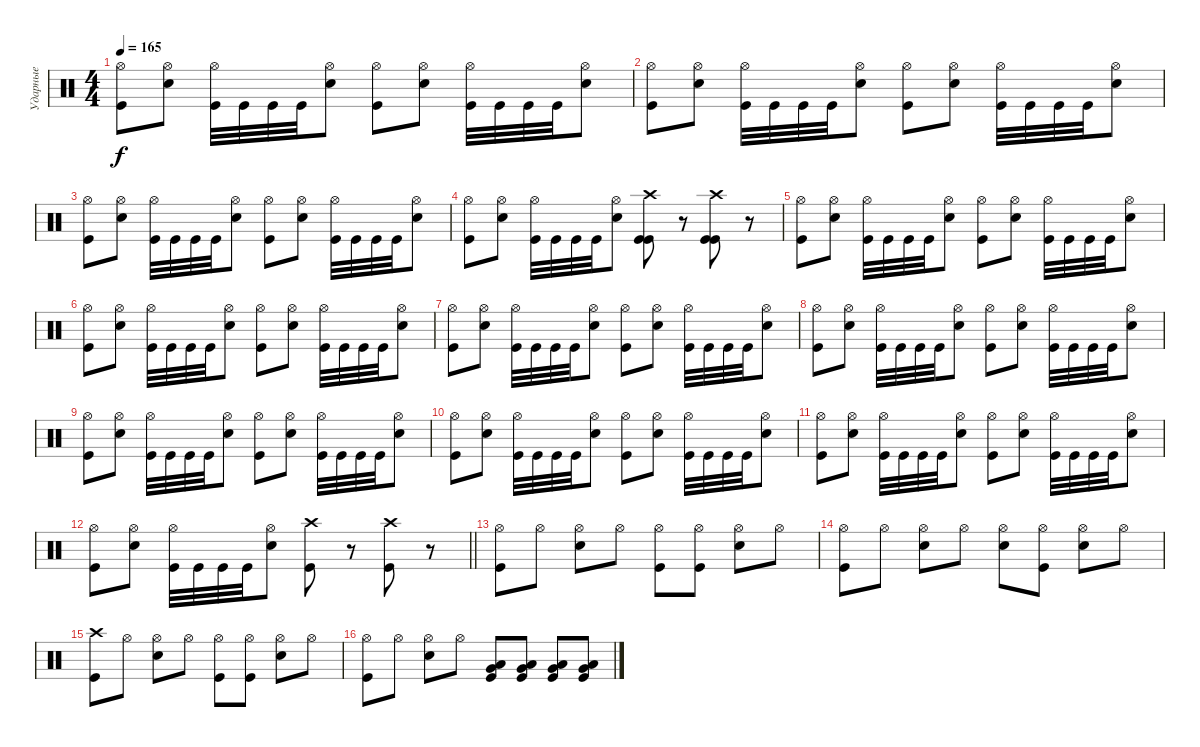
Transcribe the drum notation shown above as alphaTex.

\track ("Ударные" "Ударные") {instrument percussion}
\staff {score}
\articulation defaults
\ts (4 4)
\tempo 165
\clef neutral
\ks c
("Hi-Hat (open)" "Kick (hit)").8{dy f} ("Hi-Hat (open)" "Electric Snare (hit)").8 ("Hi-Hat (open)" "Kick (hit)").32 "Kick (hit)".32 "Kick (hit)".32 "Kick (hit)".32 ("Hi-Hat (open)" "Electric Snare (hit)").8 ("Hi-Hat (open)" "Kick (hit)").8 ("Hi-Hat (open)" "Electric Snare (hit)").8 ("Hi-Hat (open)" "Kick (hit)").32 "Kick (hit)".32 "Kick (hit)".32 "Kick (hit)".32 ("Hi-Hat (open)" "Electric Snare (hit)").8 |
("Hi-Hat (open)" "Kick (hit)").8 ("Hi-Hat (open)" "Electric Snare (hit)").8 ("Hi-Hat (open)" "Kick (hit)").32 "Kick (hit)".32 "Kick (hit)".32 "Kick (hit)".32 ("Hi-Hat (open)" "Electric Snare (hit)").8 ("Hi-Hat (open)" "Kick (hit)").8 ("Hi-Hat (open)" "Electric Snare (hit)").8 ("Hi-Hat (open)" "Kick (hit)").32 "Kick (hit)".32 "Kick (hit)".32 "Kick (hit)".32 ("Hi-Hat (open)" "Electric Snare (hit)").8 |
("Hi-Hat (open)" "Kick (hit)").8 ("Hi-Hat (open)" "Electric Snare (hit)").8 ("Hi-Hat (open)" "Kick (hit)").32 "Kick (hit)".32 "Kick (hit)".32 "Kick (hit)".32 ("Hi-Hat (open)" "Electric Snare (hit)").8 ("Hi-Hat (open)" "Kick (hit)").8 ("Hi-Hat (open)" "Electric Snare (hit)").8 ("Hi-Hat (open)" "Kick (hit)").32 "Kick (hit)".32 "Kick (hit)".32 "Kick (hit)".32 ("Hi-Hat (open)" "Electric Snare (hit)").8 |
("Hi-Hat (open)" "Kick (hit)").8 ("Hi-Hat (open)" "Electric Snare (hit)").8 ("Hi-Hat (open)" "Kick (hit)").32 "Kick (hit)".32 "Kick (hit)".32 "Kick (hit)".32 ("Hi-Hat (open)" "Electric Snare (hit)").8 ("Crash high (hit)" "Kick (hit)" "Kick (hit)").8 r.8 ("Crash high (hit)" "Kick (hit)" "Kick (hit)").8 r.8 |
("Hi-Hat (open)" "Kick (hit)").8 ("Hi-Hat (open)" "Electric Snare (hit)").8 ("Hi-Hat (open)" "Kick (hit)").32 "Kick (hit)".32 "Kick (hit)".32 "Kick (hit)".32 ("Hi-Hat (open)" "Electric Snare (hit)").8 ("Hi-Hat (open)" "Kick (hit)").8 ("Hi-Hat (open)" "Electric Snare (hit)").8 ("Hi-Hat (open)" "Kick (hit)").32 "Kick (hit)".32 "Kick (hit)".32 "Kick (hit)".32 ("Hi-Hat (open)" "Electric Snare (hit)").8 |
("Hi-Hat (open)" "Kick (hit)").8 ("Hi-Hat (open)" "Electric Snare (hit)").8 ("Hi-Hat (open)" "Kick (hit)").32 "Kick (hit)".32 "Kick (hit)".32 "Kick (hit)".32 ("Hi-Hat (open)" "Electric Snare (hit)").8 ("Hi-Hat (open)" "Kick (hit)").8 ("Hi-Hat (open)" "Electric Snare (hit)").8 ("Hi-Hat (open)" "Kick (hit)").32 "Kick (hit)".32 "Kick (hit)".32 "Kick (hit)".32 ("Hi-Hat (open)" "Electric Snare (hit)").8 |
("Hi-Hat (open)" "Kick (hit)").8 ("Hi-Hat (open)" "Electric Snare (hit)").8 ("Hi-Hat (open)" "Kick (hit)").32 "Kick (hit)".32 "Kick (hit)".32 "Kick (hit)".32 ("Hi-Hat (open)" "Electric Snare (hit)").8 ("Hi-Hat (open)" "Kick (hit)").8 ("Hi-Hat (open)" "Electric Snare (hit)").8 ("Hi-Hat (open)" "Kick (hit)").32 "Kick (hit)".32 "Kick (hit)".32 "Kick (hit)".32 ("Hi-Hat (open)" "Electric Snare (hit)").8 |
("Hi-Hat (open)" "Kick (hit)").8 ("Hi-Hat (open)" "Electric Snare (hit)").8 ("Hi-Hat (open)" "Kick (hit)").32 "Kick (hit)".32 "Kick (hit)".32 "Kick (hit)".32 ("Hi-Hat (open)" "Electric Snare (hit)").8 ("Hi-Hat (open)" "Kick (hit)").8 ("Hi-Hat (open)" "Electric Snare (hit)").8 ("Hi-Hat (open)" "Kick (hit)").32 "Kick (hit)".32 "Kick (hit)".32 "Kick (hit)".32 ("Hi-Hat (open)" "Electric Snare (hit)").8 |
("Hi-Hat (open)" "Kick (hit)").8 ("Hi-Hat (open)" "Electric Snare (hit)").8 ("Hi-Hat (open)" "Kick (hit)").32 "Kick (hit)".32 "Kick (hit)".32 "Kick (hit)".32 ("Hi-Hat (open)" "Electric Snare (hit)").8 ("Hi-Hat (open)" "Kick (hit)").8 ("Hi-Hat (open)" "Electric Snare (hit)").8 ("Hi-Hat (open)" "Kick (hit)").32 "Kick (hit)".32 "Kick (hit)".32 "Kick (hit)".32 ("Hi-Hat (open)" "Electric Snare (hit)").8 |
("Hi-Hat (open)" "Kick (hit)").8 ("Hi-Hat (open)" "Electric Snare (hit)").8 ("Hi-Hat (open)" "Kick (hit)").32 "Kick (hit)".32 "Kick (hit)".32 "Kick (hit)".32 ("Hi-Hat (open)" "Electric Snare (hit)").8 ("Hi-Hat (open)" "Kick (hit)").8 ("Hi-Hat (open)" "Electric Snare (hit)").8 ("Hi-Hat (open)" "Kick (hit)").32 "Kick (hit)".32 "Kick (hit)".32 "Kick (hit)".32 ("Hi-Hat (open)" "Electric Snare (hit)").8 |
("Hi-Hat (open)" "Kick (hit)").8 ("Hi-Hat (open)" "Electric Snare (hit)").8 ("Hi-Hat (open)" "Kick (hit)").32 "Kick (hit)".32 "Kick (hit)".32 "Kick (hit)".32 ("Hi-Hat (open)" "Electric Snare (hit)").8 ("Hi-Hat (open)" "Kick (hit)").8 ("Hi-Hat (open)" "Electric Snare (hit)").8 ("Hi-Hat (open)" "Kick (hit)").32 "Kick (hit)".32 "Kick (hit)".32 "Kick (hit)".32 ("Hi-Hat (open)" "Electric Snare (hit)").8 |
\barLineRight lightlight
("Hi-Hat (open)" "Kick (hit)").8 ("Hi-Hat (open)" "Electric Snare (hit)").8 ("Hi-Hat (open)" "Kick (hit)").32 "Kick (hit)".32 "Kick (hit)".32 "Kick (hit)".32 ("Hi-Hat (open)" "Electric Snare (hit)").8 ("Crash high (hit)" "Kick (hit)").8 r.8 ("Crash high (hit)" "Kick (hit)").8 r.8 |
\section ("" "")
("Hi-Hat (open)" "Kick (hit)").8 "Hi-Hat (open)".8 ("Hi-Hat (open)" "Electric Snare (hit)").8 "Hi-Hat (open)".8 ("Hi-Hat (open)" "Kick (hit)").8 ("Hi-Hat (open)" "Kick (hit)").8 ("Hi-Hat (open)" "Electric Snare (hit)").8 "Hi-Hat (open)".8 |
("Hi-Hat (open)" "Kick (hit)").8 "Hi-Hat (open)".8 ("Hi-Hat (open)" "Electric Snare (hit)").8 "Hi-Hat (open)".8 ("Hi-Hat (open)" "Electric Snare (hit)").8 ("Hi-Hat (open)" "Kick (hit)").8 ("Hi-Hat (open)" "Electric Snare (hit)").8 "Hi-Hat (open)".8 |
("Crash high (hit)" "Kick (hit)").8 "Hi-Hat (open)".8 ("Hi-Hat (open)" "Electric Snare (hit)").8 "Hi-Hat (open)".8 ("Hi-Hat (open)" "Kick (hit)").8 ("Hi-Hat (open)" "Kick (hit)").8 ("Hi-Hat (open)" "Electric Snare (hit)").8 "Hi-Hat (open)".8 |
("Hi-Hat (open)" "Kick (hit)").8 "Hi-Hat (open)".8 ("Hi-Hat (open)" "Electric Snare (hit)").8 "Hi-Hat (open)".8 ("Very Low Tom (hit)" "Low Tom (hit)" "Kick (hit)").8 ("Very Low Tom (hit)" "Low Tom (hit)" "Kick (hit)").8 ("Very Low Tom (hit)" "Low Tom (hit)" "Kick (hit)").8 ("Very Low Tom (hit)" "Low Tom (hit)" "Kick (hit)").8
